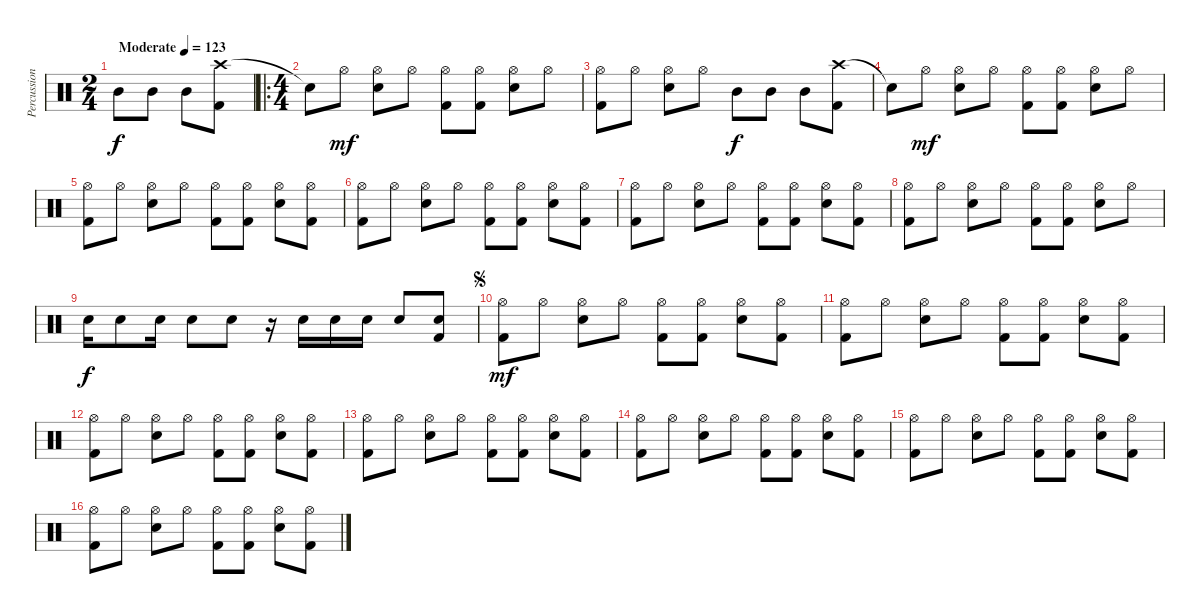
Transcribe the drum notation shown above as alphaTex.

\track ("Percussion" "Percussion") {instrument percussion}
\staff {score}
\articulation defaults
\ts (2 4)
\tempo (123 "Moderate")
\clef neutral
\ks c "Mid Tom (hit)".8{dy f} "Mid Tom (hit)".8 "Mid Tom (hit)".8
("Crash high (hit)" "Kick (hit) 2").8 |
\ro
\ts (4 4)
"Snare (hit)"{t}.8 "Hi-Hat (open)".8{dy mf} ("Hi-Hat (open)" "Snare (hit) 2").8 "Hi-Hat (open)".8 ("Hi-Hat (open)" "Kick (hit) 2").8 ("Hi-Hat (open)" "Kick (hit) 2").8 ("Hi-Hat (open)" "Snare (hit) 2").8 "Hi-Hat (open)".8 |
("Hi-Hat (open)" "Kick (hit) 2").8 "Hi-Hat (open)".8 ("Hi-Hat (open)" "Snare (hit) 2").8 "Hi-Hat (open)".8 "Mid Tom (hit)".8{dy f} "Mid Tom (hit)".8 "Mid Tom (hit)".8 ("Crash high (hit)" "Kick (hit) 2").8 |
"Snare (hit)"{t}.8 "Hi-Hat (open)".8{dy mf} ("Hi-Hat (open)" "Snare (hit) 2").8 "Hi-Hat (open)".8 ("Hi-Hat (open)" "Kick (hit) 2").8 ("Hi-Hat (open)" "Kick (hit) 2").8 ("Hi-Hat (open)" "Snare (hit) 2").8 "Hi-Hat (open)".8 |
("Hi-Hat (open)" "Kick (hit) 2").8 "Hi-Hat (open)".8 ("Hi-Hat (open)" "Snare (hit) 2").8 "Hi-Hat (open)".8 ("Hi-Hat (open)" "Kick (hit) 2").8 ("Hi-Hat (open)" "Kick (hit) 2").8 ("Hi-Hat (open)" "Snare (hit) 2").8 ("Hi-Hat (open)" "Kick (hit) 2").8 |
("Hi-Hat (open)" "Kick (hit) 2").8 "Hi-Hat (open)".8 ("Hi-Hat (open)" "Snare (hit) 2").8 "Hi-Hat (open)".8 ("Hi-Hat (open)" "Kick (hit) 2").8 ("Hi-Hat (open)" "Kick (hit) 2").8 ("Hi-Hat (open)" "Snare (hit) 2").8 ("Hi-Hat (open)" "Kick (hit) 2").8 |
("Hi-Hat (open)" "Kick (hit) 2").8 "Hi-Hat (open)".8 ("Hi-Hat (open)" "Snare (hit) 2").8 "Hi-Hat (open)".8 ("Hi-Hat (open)" "Kick (hit) 2").8 ("Hi-Hat (open)" "Kick (hit) 2").8 ("Hi-Hat (open)" "Snare (hit) 2").8 ("Hi-Hat (open)" "Kick (hit) 2").8 |
("Hi-Hat (open)" "Kick (hit) 2").8 "Hi-Hat (open)".8 ("Hi-Hat (open)" "Snare (hit) 2").8 "Hi-Hat (open)".8 ("Hi-Hat (open)" "Kick (hit) 2").8 ("Hi-Hat (open)" "Kick (hit) 2").8 ("Hi-Hat (open)" "Snare (hit) 2").8 "Hi-Hat (open)".8 |
"Snare (hit) 2".16{dy f} "Snare (hit) 2".8 "Snare (hit) 2".16 "Snare (hit) 2".8 "Snare (hit) 2".8 r.16 "Snare (hit) 2".16 "Snare (hit) 2".16 "Snare (hit) 2".16 "Snare (hit) 2".8 ("Snare (hit) 2" "Kick (hit) 2").8 |
\jump segno
("Hi-Hat (open)" "Kick (hit) 2").8{dy mf} "Hi-Hat (open)".8 ("Hi-Hat (open)" "Snare (hit) 2").8 "Hi-Hat (open)".8 ("Hi-Hat (open)" "Kick (hit) 2").8 ("Hi-Hat (open)" "Kick (hit) 2").8 ("Hi-Hat (open)" "Snare (hit) 2").8 ("Hi-Hat (open)" "Kick (hit) 2").8 |
("Hi-Hat (open)" "Kick (hit) 2").8 "Hi-Hat (open)".8 ("Hi-Hat (open)" "Snare (hit) 2").8 "Hi-Hat (open)".8 ("Hi-Hat (open)" "Kick (hit) 2").8 ("Hi-Hat (open)" "Kick (hit) 2").8 ("Hi-Hat (open)" "Snare (hit) 2").8 ("Hi-Hat (open)" "Kick (hit) 2").8 |
("Hi-Hat (open)" "Kick (hit) 2").8 "Hi-Hat (open)".8 ("Hi-Hat (open)" "Snare (hit) 2").8 "Hi-Hat (open)".8 ("Hi-Hat (open)" "Kick (hit) 2").8 ("Hi-Hat (open)" "Kick (hit) 2").8 ("Hi-Hat (open)" "Snare (hit) 2").8 ("Hi-Hat (open)" "Kick (hit) 2").8 |
("Hi-Hat (open)" "Kick (hit) 2").8 "Hi-Hat (open)".8 ("Hi-Hat (open)" "Snare (hit) 2").8 "Hi-Hat (open)".8 ("Hi-Hat (open)" "Kick (hit) 2").8 ("Hi-Hat (open)" "Kick (hit) 2").8 ("Hi-Hat (open)" "Snare (hit) 2").8 ("Hi-Hat (open)" "Kick (hit) 2").8 |
("Hi-Hat (open)" "Kick (hit) 2").8 "Hi-Hat (open)".8 ("Hi-Hat (open)" "Snare (hit) 2").8 "Hi-Hat (open)".8 ("Hi-Hat (open)" "Kick (hit) 2").8 ("Hi-Hat (open)" "Kick (hit) 2").8 ("Hi-Hat (open)" "Snare (hit) 2").8 ("Hi-Hat (open)" "Kick (hit) 2").8 |
("Hi-Hat (open)" "Kick (hit) 2").8 "Hi-Hat (open)".8 ("Hi-Hat (open)" "Snare (hit) 2").8 "Hi-Hat (open)".8 ("Hi-Hat (open)" "Kick (hit) 2").8 ("Hi-Hat (open)" "Kick (hit) 2").8 ("Hi-Hat (open)" "Snare (hit) 2").8 ("Hi-Hat (open)" "Kick (hit) 2").8 |
("Hi-Hat (open)" "Kick (hit) 2").8 "Hi-Hat (open)".8 ("Hi-Hat (open)" "Snare (hit) 2").8 "Hi-Hat (open)".8 ("Hi-Hat (open)" "Kick (hit) 2").8 ("Hi-Hat (open)" "Kick (hit) 2").8 ("Hi-Hat (open)" "Snare (hit) 2").8 ("Hi-Hat (open)" "Kick (hit) 2").8
